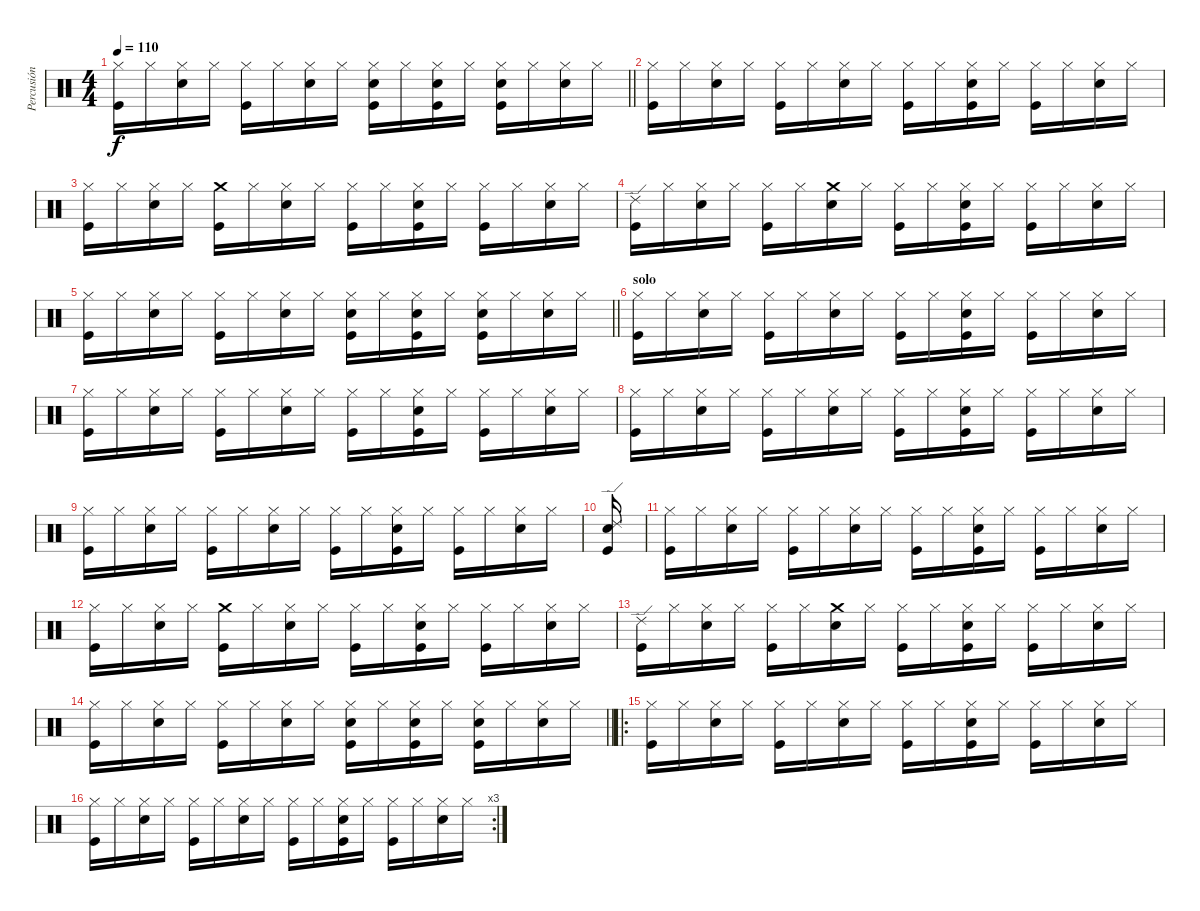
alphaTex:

\track ("Percusión" "Percusión") {instrument percussion}
\staff {score}
\articulation defaults
\ts (4 4)
\tempo 110
\clef neutral
\barLineRight lightlight
\ks c
("Hi-Hat (closed)" "Kick (hit)").16{dy f} "Hi-Hat (closed)".16 ("Hi-Hat (closed)" "Electric Snare (hit)").16 "Hi-Hat (closed)".16 ("Hi-Hat (closed)" "Kick (hit)").16 "Hi-Hat (closed)".16 ("Hi-Hat (closed)" "Electric Snare (hit)").16 "Hi-Hat (closed)".16 ("Hi-Hat (closed)" "Electric Snare (hit)" "Kick (hit)").16 "Hi-Hat (closed)".16 ("Hi-Hat (closed)" "Electric Snare (hit)" "Kick (hit)").16 "Hi-Hat (closed)".16 ("Hi-Hat (closed)" "Electric Snare (hit)" "Kick (hit)").16 "Hi-Hat (closed)".16 ("Hi-Hat (closed)" "Electric Snare (hit)").16 "Hi-Hat (closed)".16 |
("Hi-Hat (closed)" "Kick (hit)").16 "Hi-Hat (closed)".16 ("Hi-Hat (closed)" "Electric Snare (hit)").16 "Hi-Hat (closed)".16 ("Hi-Hat (closed)" "Kick (hit)").16 "Hi-Hat (closed)".16 ("Hi-Hat (closed)" "Electric Snare (hit)").16 "Hi-Hat (closed)".16 ("Hi-Hat (closed)" "Kick (hit)").16 "Hi-Hat (closed)".16 ("Hi-Hat (closed)" "Electric Snare (hit)" "Kick (hit)").16 "Hi-Hat (closed)".16 ("Hi-Hat (closed)" "Kick (hit)").16 "Hi-Hat (closed)".16 ("Hi-Hat (closed)" "Electric Snare (hit)").16 "Hi-Hat (closed)".16 |
("Hi-Hat (closed)" "Kick (hit)").16 "Hi-Hat (closed)".16 ("Hi-Hat (closed)" "Electric Snare (hit)").16 "Hi-Hat (closed)".16 ("Crash medium (hit)" "Kick (hit)").16 "Hi-Hat (closed)".16 ("Hi-Hat (closed)" "Electric Snare (hit)").16 "Hi-Hat (closed)".16 ("Hi-Hat (closed)" "Kick (hit)").16 "Hi-Hat (closed)".16 ("Hi-Hat (closed)" "Electric Snare (hit)" "Kick (hit)").16 "Hi-Hat (closed)".16 ("Hi-Hat (closed)" "Kick (hit)").16 "Hi-Hat (closed)".16 ("Hi-Hat (closed)" "Electric Snare (hit)").16 "Hi-Hat (closed)".16 |
("Ride (edge) 2" "Kick (hit)").16 "Hi-Hat (closed)".16 ("Hi-Hat (closed)" "Electric Snare (hit)").16 "Hi-Hat (closed)".16 ("Hi-Hat (closed)" "Kick (hit)").16 "Hi-Hat (closed)".16 ("Crash medium (hit)" "Electric Snare (hit)").16 "Hi-Hat (closed)".16 ("Hi-Hat (closed)" "Kick (hit)").16 "Hi-Hat (closed)".16 ("Hi-Hat (closed)" "Electric Snare (hit)" "Kick (hit)").16 "Hi-Hat (closed)".16 ("Hi-Hat (closed)" "Kick (hit)").16 "Hi-Hat (closed)".16 ("Hi-Hat (closed)" "Electric Snare (hit)").16 "Hi-Hat (closed)".16 |
\barLineRight lightlight
("Hi-Hat (closed)" "Kick (hit)").16 "Hi-Hat (closed)".16 ("Hi-Hat (closed)" "Electric Snare (hit)").16 "Hi-Hat (closed)".16 ("Hi-Hat (closed)" "Kick (hit)").16 "Hi-Hat (closed)".16 ("Hi-Hat (closed)" "Electric Snare (hit)").16 "Hi-Hat (closed)".16 ("Hi-Hat (closed)" "Electric Snare (hit)" "Kick (hit)").16 "Hi-Hat (closed)".16 ("Hi-Hat (closed)" "Electric Snare (hit)" "Kick (hit)").16 "Hi-Hat (closed)".16 ("Hi-Hat (closed)" "Electric Snare (hit)" "Kick (hit)").16 "Hi-Hat (closed)".16 ("Hi-Hat (closed)" "Electric Snare (hit)").16 "Hi-Hat (closed)".16 |
\section ("" "solo")
("Hi-Hat (closed)" "Kick (hit)").16 "Hi-Hat (closed)".16 ("Hi-Hat (closed)" "Electric Snare (hit)").16 "Hi-Hat (closed)".16 ("Hi-Hat (closed)" "Kick (hit)").16 "Hi-Hat (closed)".16 ("Hi-Hat (closed)" "Electric Snare (hit)").16 "Hi-Hat (closed)".16 ("Hi-Hat (closed)" "Kick (hit)").16 "Hi-Hat (closed)".16 ("Hi-Hat (closed)" "Electric Snare (hit)" "Kick (hit)").16 "Hi-Hat (closed)".16 ("Hi-Hat (closed)" "Kick (hit)").16 "Hi-Hat (closed)".16 ("Hi-Hat (closed)" "Electric Snare (hit)").16 "Hi-Hat (closed)".16 |
("Hi-Hat (closed)" "Kick (hit)").16 "Hi-Hat (closed)".16 ("Hi-Hat (closed)" "Electric Snare (hit)").16 "Hi-Hat (closed)".16 ("Hi-Hat (closed)" "Kick (hit)").16 "Hi-Hat (closed)".16 ("Hi-Hat (closed)" "Electric Snare (hit)").16 "Hi-Hat (closed)".16 ("Hi-Hat (closed)" "Kick (hit)").16 "Hi-Hat (closed)".16 ("Hi-Hat (closed)" "Electric Snare (hit)" "Kick (hit)").16 "Hi-Hat (closed)".16 ("Hi-Hat (closed)" "Kick (hit)").16 "Hi-Hat (closed)".16 ("Hi-Hat (closed)" "Electric Snare (hit)").16 "Hi-Hat (closed)".16 |
("Hi-Hat (closed)" "Kick (hit)").16 "Hi-Hat (closed)".16 ("Hi-Hat (closed)" "Electric Snare (hit)").16 "Hi-Hat (closed)".16 ("Hi-Hat (closed)" "Kick (hit)").16 "Hi-Hat (closed)".16 ("Hi-Hat (closed)" "Electric Snare (hit)").16 "Hi-Hat (closed)".16 ("Hi-Hat (closed)" "Kick (hit)").16 "Hi-Hat (closed)".16 ("Hi-Hat (closed)" "Electric Snare (hit)" "Kick (hit)").16 "Hi-Hat (closed)".16 ("Hi-Hat (closed)" "Kick (hit)").16 "Hi-Hat (closed)".16 ("Hi-Hat (closed)" "Electric Snare (hit)").16 "Hi-Hat (closed)".16 |
("Hi-Hat (closed)" "Kick (hit)").16 "Hi-Hat (closed)".16 ("Hi-Hat (closed)" "Electric Snare (hit)").16 "Hi-Hat (closed)".16 ("Hi-Hat (closed)" "Kick (hit)").16 "Hi-Hat (closed)".16 ("Hi-Hat (closed)" "Electric Snare (hit)").16 "Hi-Hat (closed)".16 ("Hi-Hat (closed)" "Kick (hit)").16 "Hi-Hat (closed)".16 ("Hi-Hat (closed)" "Electric Snare (hit)" "Kick (hit)").16 "Hi-Hat (closed)".16 ("Hi-Hat (closed)" "Kick (hit)").16 "Hi-Hat (closed)".16 ("Hi-Hat (closed)" "Electric Snare (hit)").16 "Hi-Hat (closed)".16 |
("Ride (edge) 2" "Electric Snare (hit)" "Kick (hit)").16 |
("Hi-Hat (closed)" "Kick (hit)").16 "Hi-Hat (closed)".16 ("Hi-Hat (closed)" "Electric Snare (hit)").16 "Hi-Hat (closed)".16 ("Hi-Hat (closed)" "Kick (hit)").16 "Hi-Hat (closed)".16 ("Hi-Hat (closed)" "Electric Snare (hit)").16 "Hi-Hat (closed)".16 ("Hi-Hat (closed)" "Kick (hit)").16 "Hi-Hat (closed)".16 ("Hi-Hat (closed)" "Electric Snare (hit)" "Kick (hit)").16 "Hi-Hat (closed)".16 ("Hi-Hat (closed)" "Kick (hit)").16 "Hi-Hat (closed)".16 ("Hi-Hat (closed)" "Electric Snare (hit)").16 "Hi-Hat (closed)".16 |
("Hi-Hat (closed)" "Kick (hit)").16 "Hi-Hat (closed)".16 ("Hi-Hat (closed)" "Electric Snare (hit)").16 "Hi-Hat (closed)".16 ("Crash medium (hit)" "Kick (hit)").16 "Hi-Hat (closed)".16 ("Hi-Hat (closed)" "Electric Snare (hit)").16 "Hi-Hat (closed)".16 ("Hi-Hat (closed)" "Kick (hit)").16 "Hi-Hat (closed)".16 ("Hi-Hat (closed)" "Electric Snare (hit)" "Kick (hit)").16 "Hi-Hat (closed)".16 ("Hi-Hat (closed)" "Kick (hit)").16 "Hi-Hat (closed)".16 ("Hi-Hat (closed)" "Electric Snare (hit)").16 "Hi-Hat (closed)".16 |
("Ride (edge) 2" "Kick (hit)").16 "Hi-Hat (closed)".16 ("Hi-Hat (closed)" "Electric Snare (hit)").16 "Hi-Hat (closed)".16 ("Hi-Hat (closed)" "Kick (hit)").16 "Hi-Hat (closed)".16 ("Crash medium (hit)" "Electric Snare (hit)").16 "Hi-Hat (closed)".16 ("Hi-Hat (closed)" "Kick (hit)").16 "Hi-Hat (closed)".16 ("Hi-Hat (closed)" "Electric Snare (hit)" "Kick (hit)").16 "Hi-Hat (closed)".16 ("Hi-Hat (closed)" "Kick (hit)").16 "Hi-Hat (closed)".16 ("Hi-Hat (closed)" "Electric Snare (hit)").16 "Hi-Hat (closed)".16 |
\barLineRight lightlight
("Hi-Hat (closed)" "Kick (hit)").16 "Hi-Hat (closed)".16 ("Hi-Hat (closed)" "Electric Snare (hit)").16 "Hi-Hat (closed)".16 ("Hi-Hat (closed)" "Kick (hit)").16 "Hi-Hat (closed)".16 ("Hi-Hat (closed)" "Electric Snare (hit)").16 "Hi-Hat (closed)".16 ("Hi-Hat (closed)" "Electric Snare (hit)" "Kick (hit)").16 "Hi-Hat (closed)".16 ("Hi-Hat (closed)" "Electric Snare (hit)" "Kick (hit)").16 "Hi-Hat (closed)".16 ("Hi-Hat (closed)" "Electric Snare (hit)" "Kick (hit)").16 "Hi-Hat (closed)".16 ("Hi-Hat (closed)" "Electric Snare (hit)").16 "Hi-Hat (closed)".16 |
\ro
("Hi-Hat (closed)" "Kick (hit)").16 "Hi-Hat (closed)".16 ("Hi-Hat (closed)" "Electric Snare (hit)").16 "Hi-Hat (closed)".16 ("Hi-Hat (closed)" "Kick (hit)").16 "Hi-Hat (closed)".16 ("Hi-Hat (closed)" "Electric Snare (hit)").16 "Hi-Hat (closed)".16 ("Hi-Hat (closed)" "Kick (hit)").16 "Hi-Hat (closed)".16 ("Hi-Hat (closed)" "Electric Snare (hit)" "Kick (hit)").16 "Hi-Hat (closed)".16 ("Hi-Hat (closed)" "Kick (hit)").16 "Hi-Hat (closed)".16 ("Hi-Hat (closed)" "Electric Snare (hit)").16 "Hi-Hat (closed)".16 |
\rc 3
("Hi-Hat (closed)" "Kick (hit)").16 "Hi-Hat (closed)".16 ("Hi-Hat (closed)" "Electric Snare (hit)").16 "Hi-Hat (closed)".16 ("Hi-Hat (closed)" "Kick (hit)").16 "Hi-Hat (closed)".16 ("Hi-Hat (closed)" "Electric Snare (hit)").16 "Hi-Hat (closed)".16 ("Hi-Hat (closed)" "Kick (hit)").16 "Hi-Hat (closed)".16 ("Hi-Hat (closed)" "Electric Snare (hit)" "Kick (hit)").16 "Hi-Hat (closed)".16 ("Hi-Hat (closed)" "Kick (hit)").16 "Hi-Hat (closed)".16 ("Hi-Hat (closed)" "Electric Snare (hit)").16 "Hi-Hat (closed)".16
